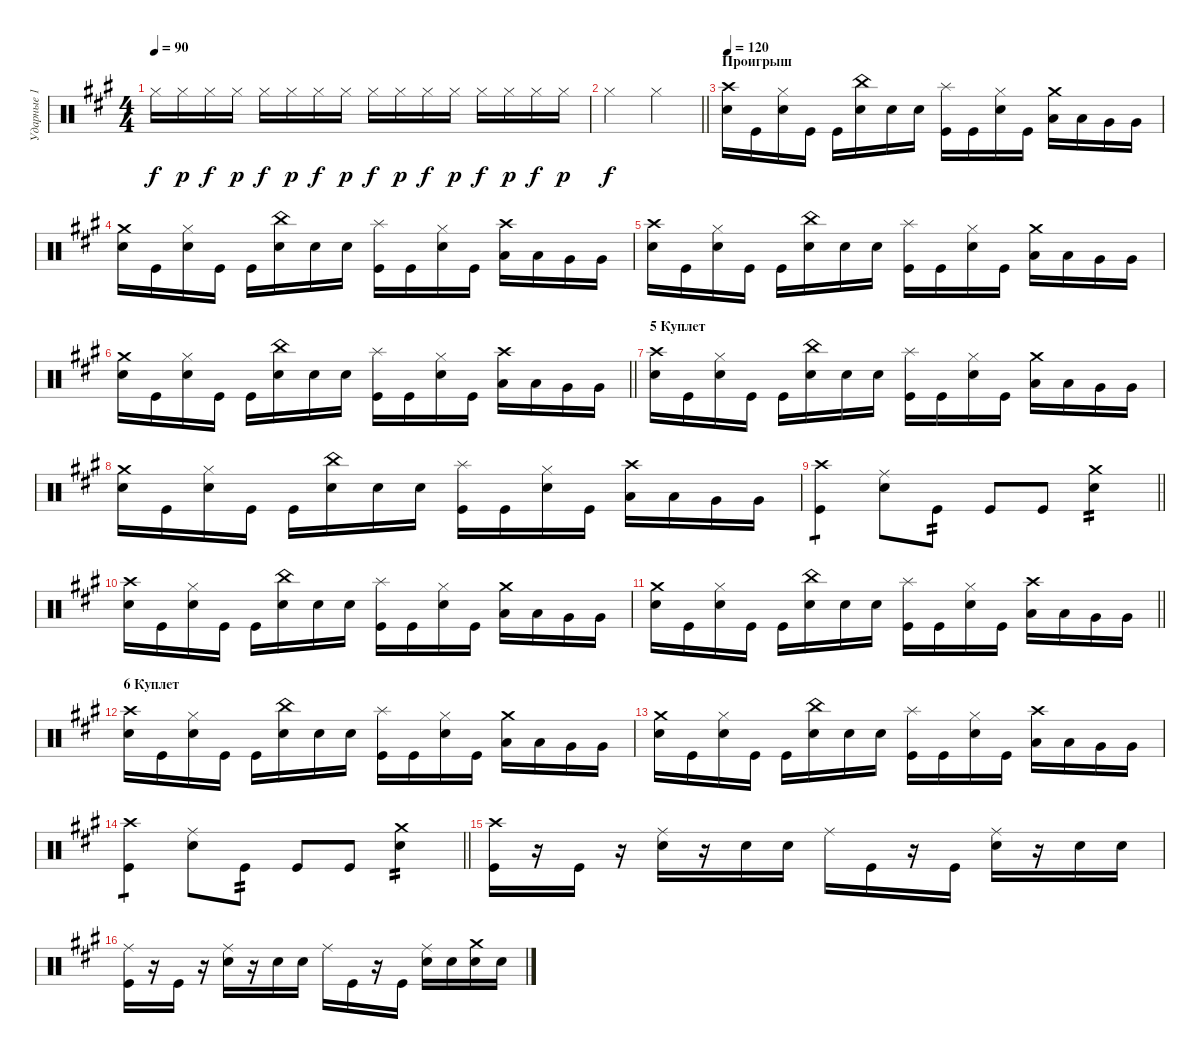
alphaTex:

\track ("Ударные 1" "Ударные 1") {instrument percussion}
\staff {score}
\articulation defaults
\ts (4 4)
\tempo 90
\clef neutral
\ks f#minor "Hi-Hat (closed)".16{dy f} "Hi-Hat (closed)".16{dy p} "Hi-Hat (closed)".16{dy f} "Hi-Hat (closed)".16{dy p} "Hi-Hat (closed)".16{dy f} "Hi-Hat (closed)".16{dy p} "Hi-Hat (closed)".16{dy f} "Hi-Hat (closed)".16{dy p} "Hi-Hat (closed)".16{dy f} "Hi-Hat (closed)".16{dy p} "Hi-Hat (closed)".16{dy f} "Hi-Hat (closed)".16{dy p} "Hi-Hat (closed)".16{dy f} "Hi-Hat (closed)".16{dy p} "Hi-Hat (closed)".16{dy f} "Hi-Hat (closed)".16{dy p}
|
\barLineRight lightlight "Hi-Hat (closed)".2{dy f} "Hi-Hat (closed)".2
|
\section ("" "Проигрыш")
\tempo 120
("Crash high (hit)" "Snare (hit) 2").16 "Kick (hit)".16 ("Hi-Hat (closed)" "Snare (hit) 2").16 "Kick (hit)".16 "Kick (hit)".16 ("China (hit)" "Snare (hit) 2").16 "Snare (hit) 2".16 "Snare (hit) 2".16 ("Splash (hit)" "Kick (hit)").16 "Kick (hit)".16 ("Hi-Hat (closed)" "Snare (hit) 2").16 "Kick (hit)".16 ("Crash medium (hit)" "Low Tom (hit)").16 "Low Tom (hit)".16 "Very Low Tom (hit)".16 "Very Low Tom (hit)".16 |
("Crash medium (hit)" "Snare (hit) 2").16 "Kick (hit)".16 ("Hi-Hat (closed)" "Snare (hit) 2").16 "Kick (hit)".16 "Kick (hit)".16 ("China (hit)" "Snare (hit) 2").16 "Snare (hit) 2".16 "Snare (hit) 2".16 ("Splash (hit)" "Kick (hit)").16 "Kick (hit)".16 ("Hi-Hat (closed)" "Snare (hit) 2").16 "Kick (hit)".16 ("Crash high (hit)" "Low Tom (hit)").16 "Low Tom (hit)".16 "Very Low Tom (hit)".16 "Very Low Tom (hit)".16 |
("Crash high (hit)" "Snare (hit) 2").16 "Kick (hit)".16 ("Hi-Hat (closed)" "Snare (hit) 2").16 "Kick (hit)".16 "Kick (hit)".16 ("China (hit)" "Snare (hit) 2").16 "Snare (hit) 2".16 "Snare (hit) 2".16 ("Splash (hit)" "Kick (hit)").16 "Kick (hit)".16 ("Hi-Hat (closed)" "Snare (hit) 2").16 "Kick (hit)".16 ("Crash medium (hit)" "Low Tom (hit)").16 "Low Tom (hit)".16 "Very Low Tom (hit)".16 "Very Low Tom (hit)".16 |
\barLineRight lightlight
("Crash medium (hit)" "Snare (hit) 2").16 "Kick (hit)".16 ("Hi-Hat (closed)" "Snare (hit) 2").16 "Kick (hit)".16 "Kick (hit)".16 ("China (hit)" "Snare (hit) 2").16 "Snare (hit) 2".16 "Snare (hit) 2".16 ("Splash (hit)" "Kick (hit)").16 "Kick (hit)".16 ("Hi-Hat (closed)" "Snare (hit) 2").16 "Kick (hit)".16 ("Crash high (hit)" "Low Tom (hit)").16 "Low Tom (hit)".16 "Very Low Tom (hit)".16 "Very Low Tom (hit)".16 |
\section ("" "5 Куплет")
("Crash high (hit)" "Snare (hit) 2").16 "Kick (hit)".16 ("Hi-Hat (closed)" "Snare (hit) 2").16 "Kick (hit)".16 "Kick (hit)".16 ("China (hit)" "Snare (hit) 2").16 "Snare (hit) 2".16 "Snare (hit) 2".16 ("Splash (hit)" "Kick (hit)").16 "Kick (hit)".16 ("Hi-Hat (closed)" "Snare (hit) 2").16 "Kick (hit)".16 ("Crash medium (hit)" "Low Tom (hit)").16 "Low Tom (hit)".16 "Very Low Tom (hit)".16 "Very Low Tom (hit)".16 |
("Crash medium (hit)" "Snare (hit) 2").16 "Kick (hit)".16 ("Hi-Hat (closed)" "Snare (hit) 2").16 "Kick (hit)".16 "Kick (hit)".16 ("China (hit)" "Snare (hit) 2").16 "Snare (hit) 2".16 "Snare (hit) 2".16 ("Splash (hit)" "Kick (hit)").16 "Kick (hit)".16 ("Hi-Hat (closed)" "Snare (hit) 2").16 "Kick (hit)".16 ("Crash high (hit)" "Low Tom (hit)").16 "Low Tom (hit)".16 "Very Low Tom (hit)".16 "Very Low Tom (hit)".16 |
\barLineRight lightlight
("Crash high (hit)" "Kick (hit)").4{tp 1} ("Ride (middle)" "Snare (hit) 2").8 "Kick (hit)".8{tp 2} "Kick (hit)".8 "Kick (hit)".8 ("Crash medium (hit)" "Snare (hit) 2").4{tp 2} |
("Crash high (hit)" "Snare (hit) 2").16 "Kick (hit)".16 ("Hi-Hat (closed)" "Snare (hit) 2").16 "Kick (hit)".16 "Kick (hit)".16 ("China (hit)" "Snare (hit) 2").16 "Snare (hit) 2".16 "Snare (hit) 2".16 ("Splash (hit)" "Kick (hit)").16 "Kick (hit)".16 ("Hi-Hat (closed)" "Snare (hit) 2").16 "Kick (hit)".16 ("Crash medium (hit)" "Low Tom (hit)").16 "Low Tom (hit)".16 "Very Low Tom (hit)".16 "Very Low Tom (hit)".16 |
\barLineRight lightlight
("Crash medium (hit)" "Snare (hit) 2").16 "Kick (hit)".16 ("Hi-Hat (closed)" "Snare (hit) 2").16 "Kick (hit)".16 "Kick (hit)".16 ("China (hit)" "Snare (hit) 2").16 "Snare (hit) 2".16 "Snare (hit) 2".16 ("Splash (hit)" "Kick (hit)").16 "Kick (hit)".16 ("Hi-Hat (closed)" "Snare (hit) 2").16 "Kick (hit)".16 ("Crash high (hit)" "Low Tom (hit)").16 "Low Tom (hit)".16 "Very Low Tom (hit)".16 "Very Low Tom (hit)".16 |
\section ("" "6 Куплет")
("Crash high (hit)" "Snare (hit) 2").16 "Kick (hit)".16 ("Hi-Hat (closed)" "Snare (hit) 2").16 "Kick (hit)".16 "Kick (hit)".16 ("China (hit)" "Snare (hit) 2").16 "Snare (hit) 2".16 "Snare (hit) 2".16 ("Splash (hit)" "Kick (hit)").16 "Kick (hit)".16 ("Hi-Hat (closed)" "Snare (hit) 2").16 "Kick (hit)".16 ("Crash medium (hit)" "Low Tom (hit)").16 "Low Tom (hit)".16 "Very Low Tom (hit)".16 "Very Low Tom (hit)".16 |
("Crash medium (hit)" "Snare (hit) 2").16 "Kick (hit)".16 ("Hi-Hat (closed)" "Snare (hit) 2").16 "Kick (hit)".16 "Kick (hit)".16 ("China (hit)" "Snare (hit) 2").16 "Snare (hit) 2".16 "Snare (hit) 2".16 ("Splash (hit)" "Kick (hit)").16 "Kick (hit)".16 ("Hi-Hat (closed)" "Snare (hit) 2").16 "Kick (hit)".16 ("Crash high (hit)" "Low Tom (hit)").16 "Low Tom (hit)".16 "Very Low Tom (hit)".16 "Very Low Tom (hit)".16 |
\barLineRight lightlight
("Crash high (hit)" "Kick (hit)").4{tp 1} ("Ride (middle)" "Snare (hit) 2").8 "Kick (hit)".8{tp 2} "Kick (hit)".8 "Kick (hit)".8 ("Crash medium (hit)" "Snare (hit) 2").4{tp 2} |
("Crash high (hit)" "Kick (hit)").16 r.16 "Kick (hit)".16 r.16 ("Ride (middle)" "Snare (hit) 2").16 r.16 "Snare (hit) 2".16 "Snare (hit) 2".16 "Ride (middle)".16 "Kick (hit)".16 r.16 "Kick (hit)".16 ("Ride (middle)" "Snare (hit) 2").16 r.16 "Snare (hit) 2".16 "Snare (hit) 2".16 |
("Ride (middle)" "Kick (hit)").16 r.16 "Kick (hit)".16 r.16 ("Ride (middle)" "Snare (hit) 2").16 r.16 "Snare (hit) 2".16 "Snare (hit) 2".16 "Ride (middle)".16 "Kick (hit)".16 r.16 "Kick (hit)".16 ("Ride (middle)" "Snare (hit) 2").16 "Snare (hit) 2".16 ("Crash medium (hit)" "Snare (hit) 2").16 "Snare (hit) 2".16
